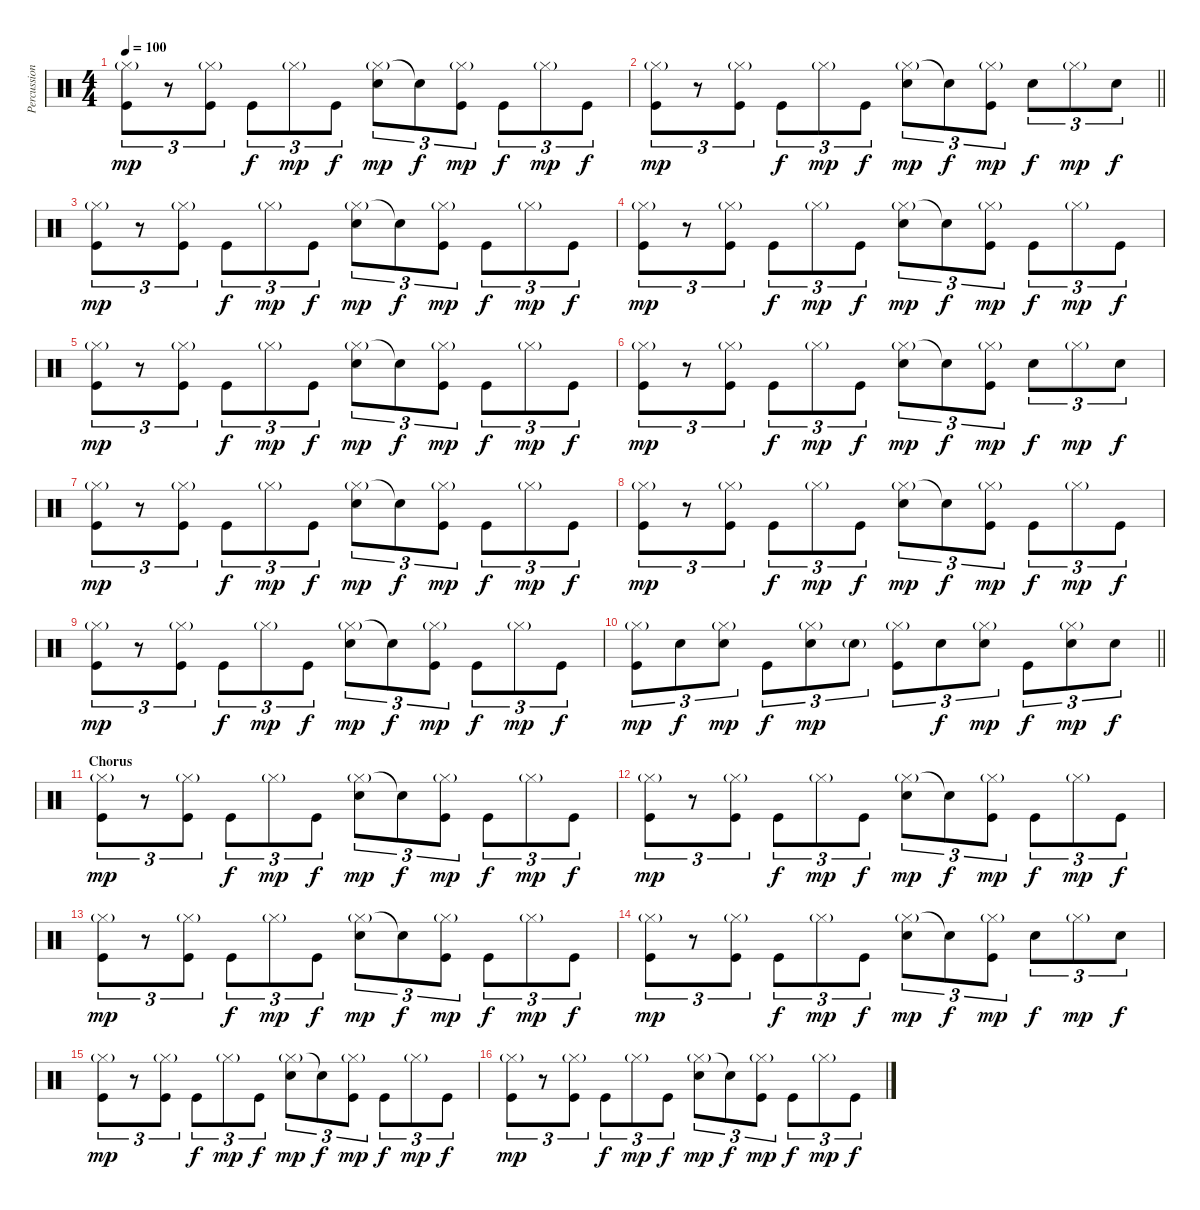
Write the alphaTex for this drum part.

\track ("Percussions" "Percussion") {instrument percussion}
\staff {score}
\articulation defaults
\ts (4 4)
\tempo 100
\clef neutral
\ks c
("Hi-Hat (closed)"{g} "Kick (hit)").8{tu (3 2) dy mp} r.8{tu (3 2)} ("Hi-Hat (closed)"{g} "Kick (hit)").8{tu (3 2)} "Kick (hit)".8{tu (3 2) dy f} "Hi-Hat (closed)"{g}.8{tu (3 2) dy mp} "Kick (hit)".8{tu (3 2) dy f} ("Hi-Hat (closed)"{g} "Electric Snare (hit)").8{tu (3 2) dy mp} "Snare (hit)"{t}.8{tu (3 2) dy f} ("Hi-Hat (closed)"{g} "Kick (hit)").8{tu (3 2) dy mp} "Kick (hit)".8{tu (3 2) dy f} "Hi-Hat (closed)"{g}.8{tu (3 2) dy mp} "Kick (hit)".8{tu (3 2) dy f} |
\barLineRight lightlight
("Hi-Hat (closed)"{g} "Kick (hit)").8{tu (3 2) dy mp} r.8{tu (3 2)} ("Hi-Hat (closed)"{g} "Kick (hit)").8{tu (3 2)} "Kick (hit)".8{tu (3 2) dy f} "Hi-Hat (closed)"{g}.8{tu (3 2) dy mp} "Kick (hit)".8{tu (3 2) dy f} ("Hi-Hat (closed)"{g} "Electric Snare (hit)").8{tu (3 2) dy mp} "Snare (hit)"{t}.8{tu (3 2) dy f} ("Hi-Hat (closed)"{g} "Kick (hit)").8{tu (3 2) dy mp} "Electric Snare (hit)".8{tu (3 2) dy f} "Hi-Hat (closed)"{g}.8{tu (3 2) dy mp} "Electric Snare (hit)".8{tu (3 2) dy f} |
("Hi-Hat (closed)"{g} "Kick (hit)").8{tu (3 2) dy mp} r.8{tu (3 2)} ("Hi-Hat (closed)"{g} "Kick (hit)").8{tu (3 2)} "Kick (hit)".8{tu (3 2) dy f} "Hi-Hat (closed)"{g}.8{tu (3 2) dy mp} "Kick (hit)".8{tu (3 2) dy f} ("Hi-Hat (closed)"{g} "Electric Snare (hit)").8{tu (3 2) dy mp} "Snare (hit)"{t}.8{tu (3 2) dy f} ("Hi-Hat (closed)"{g} "Kick (hit)").8{tu (3 2) dy mp} "Kick (hit)".8{tu (3 2) dy f} "Hi-Hat (closed)"{g}.8{tu (3 2) dy mp} "Kick (hit)".8{tu (3 2) dy f} |
("Hi-Hat (closed)"{g} "Kick (hit)").8{tu (3 2) dy mp} r.8{tu (3 2)} ("Hi-Hat (closed)"{g} "Kick (hit)").8{tu (3 2)} "Kick (hit)".8{tu (3 2) dy f} "Hi-Hat (closed)"{g}.8{tu (3 2) dy mp} "Kick (hit)".8{tu (3 2) dy f} ("Hi-Hat (closed)"{g} "Electric Snare (hit)").8{tu (3 2) dy mp} "Snare (hit)"{t}.8{tu (3 2) dy f} ("Hi-Hat (closed)"{g} "Kick (hit)").8{tu (3 2) dy mp} "Kick (hit)".8{tu (3 2) dy f} "Hi-Hat (closed)"{g}.8{tu (3 2) dy mp} "Kick (hit)".8{tu (3 2) dy f} |
("Hi-Hat (closed)"{g} "Kick (hit)").8{tu (3 2) dy mp} r.8{tu (3 2)} ("Hi-Hat (closed)"{g} "Kick (hit)").8{tu (3 2)} "Kick (hit)".8{tu (3 2) dy f} "Hi-Hat (closed)"{g}.8{tu (3 2) dy mp} "Kick (hit)".8{tu (3 2) dy f} ("Hi-Hat (closed)"{g} "Electric Snare (hit)").8{tu (3 2) dy mp} "Snare (hit)"{t}.8{tu (3 2) dy f} ("Hi-Hat (closed)"{g} "Kick (hit)").8{tu (3 2) dy mp} "Kick (hit)".8{tu (3 2) dy f} "Hi-Hat (closed)"{g}.8{tu (3 2) dy mp} "Kick (hit)".8{tu (3 2) dy f} |
("Hi-Hat (closed)"{g} "Kick (hit)").8{tu (3 2) dy mp} r.8{tu (3 2)} ("Hi-Hat (closed)"{g} "Kick (hit)").8{tu (3 2)} "Kick (hit)".8{tu (3 2) dy f} "Hi-Hat (closed)"{g}.8{tu (3 2) dy mp} "Kick (hit)".8{tu (3 2) dy f} ("Hi-Hat (closed)"{g} "Electric Snare (hit)").8{tu (3 2) dy mp} "Snare (hit)"{t}.8{tu (3 2) dy f} ("Hi-Hat (closed)"{g} "Kick (hit)").8{tu (3 2) dy mp} "Electric Snare (hit)".8{tu (3 2) dy f} "Hi-Hat (closed)"{g}.8{tu (3 2) dy mp} "Electric Snare (hit)".8{tu (3 2) dy f} |
("Hi-Hat (closed)"{g} "Kick (hit)").8{tu (3 2) dy mp} r.8{tu (3 2)} ("Hi-Hat (closed)"{g} "Kick (hit)").8{tu (3 2)} "Kick (hit)".8{tu (3 2) dy f} "Hi-Hat (closed)"{g}.8{tu (3 2) dy mp} "Kick (hit)".8{tu (3 2) dy f} ("Hi-Hat (closed)"{g} "Electric Snare (hit)").8{tu (3 2) dy mp} "Snare (hit)"{t}.8{tu (3 2) dy f} ("Hi-Hat (closed)"{g} "Kick (hit)").8{tu (3 2) dy mp} "Kick (hit)".8{tu (3 2) dy f} "Hi-Hat (closed)"{g}.8{tu (3 2) dy mp} "Kick (hit)".8{tu (3 2) dy f} |
("Hi-Hat (closed)"{g} "Kick (hit)").8{tu (3 2) dy mp} r.8{tu (3 2)} ("Hi-Hat (closed)"{g} "Kick (hit)").8{tu (3 2)} "Kick (hit)".8{tu (3 2) dy f} "Hi-Hat (closed)"{g}.8{tu (3 2) dy mp} "Kick (hit)".8{tu (3 2) dy f} ("Hi-Hat (closed)"{g} "Electric Snare (hit)").8{tu (3 2) dy mp} "Snare (hit)"{t}.8{tu (3 2) dy f} ("Hi-Hat (closed)"{g} "Kick (hit)").8{tu (3 2) dy mp} "Kick (hit)".8{tu (3 2) dy f} "Hi-Hat (closed)"{g}.8{tu (3 2) dy mp} "Kick (hit)".8{tu (3 2) dy f} |
("Hi-Hat (closed)"{g} "Kick (hit)").8{tu (3 2) dy mp} r.8{tu (3 2)} ("Hi-Hat (closed)"{g} "Kick (hit)").8{tu (3 2)} "Kick (hit)".8{tu (3 2) dy f} "Hi-Hat (closed)"{g}.8{tu (3 2) dy mp} "Kick (hit)".8{tu (3 2) dy f} ("Hi-Hat (closed)"{g} "Electric Snare (hit)").8{tu (3 2) dy mp} "Snare (hit)"{t}.8{tu (3 2) dy f} ("Hi-Hat (closed)"{g} "Kick (hit)").8{tu (3 2) dy mp} "Kick (hit)".8{tu (3 2) dy f} "Hi-Hat (closed)"{g}.8{tu (3 2) dy mp} "Kick (hit)".8{tu (3 2) dy f} |
\barLineRight lightlight
("Hi-Hat (closed)"{g} "Kick (hit)").8{tu (3 2) dy mp} "Electric Snare (hit)".8{tu (3 2) dy f} ("Hi-Hat (closed)"{g} "Electric Snare (hit)").8{tu (3 2) dy mp} "Kick (hit)".8{tu (3 2) dy f} ("Hi-Hat (closed)"{g} "Electric Snare (hit)").8{tu (3 2) dy mp} "Electric Snare (hit)"{g}.8{tu (3 2)} ("Hi-Hat (closed)"{g} "Kick (hit)").8{tu (3 2)} "Electric Snare (hit)".8{tu (3 2) dy f} ("Hi-Hat (closed)"{g} "Electric Snare (hit)").8{tu (3 2) dy mp} "Kick (hit)".8{tu (3 2) dy f} ("Hi-Hat (closed)"{g} "Electric Snare (hit)").8{tu (3 2) dy mp} "Electric Snare (hit)".8{tu (3 2) dy f} |
\section ("" "Chorus")
("Hi-Hat (closed)"{g} "Kick (hit)").8{tu (3 2) dy mp} r.8{tu (3 2)} ("Hi-Hat (closed)"{g} "Kick (hit)").8{tu (3 2)} "Kick (hit)".8{tu (3 2) dy f} "Hi-Hat (closed)"{g}.8{tu (3 2) dy mp} "Kick (hit)".8{tu (3 2) dy f} ("Hi-Hat (closed)"{g} "Electric Snare (hit)").8{tu (3 2) dy mp} "Snare (hit)"{t}.8{tu (3 2) dy f} ("Hi-Hat (closed)"{g} "Kick (hit)").8{tu (3 2) dy mp} "Kick (hit)".8{tu (3 2) dy f} "Hi-Hat (closed)"{g}.8{tu (3 2) dy mp} "Kick (hit)".8{tu (3 2) dy f} |
("Hi-Hat (closed)"{g} "Kick (hit)").8{tu (3 2) dy mp} r.8{tu (3 2)} ("Hi-Hat (closed)"{g} "Kick (hit)").8{tu (3 2)} "Kick (hit)".8{tu (3 2) dy f} "Hi-Hat (closed)"{g}.8{tu (3 2) dy mp} "Kick (hit)".8{tu (3 2) dy f} ("Hi-Hat (closed)"{g} "Electric Snare (hit)").8{tu (3 2) dy mp} "Snare (hit)"{t}.8{tu (3 2) dy f} ("Hi-Hat (closed)"{g} "Kick (hit)").8{tu (3 2) dy mp} "Kick (hit)".8{tu (3 2) dy f} "Hi-Hat (closed)"{g}.8{tu (3 2) dy mp} "Kick (hit)".8{tu (3 2) dy f} |
("Hi-Hat (closed)"{g} "Kick (hit)").8{tu (3 2) dy mp} r.8{tu (3 2)} ("Hi-Hat (closed)"{g} "Kick (hit)").8{tu (3 2)} "Kick (hit)".8{tu (3 2) dy f} "Hi-Hat (closed)"{g}.8{tu (3 2) dy mp} "Kick (hit)".8{tu (3 2) dy f} ("Hi-Hat (closed)"{g} "Electric Snare (hit)").8{tu (3 2) dy mp} "Snare (hit)"{t}.8{tu (3 2) dy f} ("Hi-Hat (closed)"{g} "Kick (hit)").8{tu (3 2) dy mp} "Kick (hit)".8{tu (3 2) dy f} "Hi-Hat (closed)"{g}.8{tu (3 2) dy mp} "Kick (hit)".8{tu (3 2) dy f} |
("Hi-Hat (closed)"{g} "Kick (hit)").8{tu (3 2) dy mp} r.8{tu (3 2)} ("Hi-Hat (closed)"{g} "Kick (hit)").8{tu (3 2)} "Kick (hit)".8{tu (3 2) dy f} "Hi-Hat (closed)"{g}.8{tu (3 2) dy mp} "Kick (hit)".8{tu (3 2) dy f} ("Hi-Hat (closed)"{g} "Electric Snare (hit)").8{tu (3 2) dy mp} "Snare (hit)"{t}.8{tu (3 2) dy f} ("Hi-Hat (closed)"{g} "Kick (hit)").8{tu (3 2) dy mp} "Electric Snare (hit)".8{tu (3 2) dy f} "Hi-Hat (closed)"{g}.8{tu (3 2) dy mp} "Electric Snare (hit)".8{tu (3 2) dy f} |
("Hi-Hat (closed)"{g} "Kick (hit)").8{tu (3 2) dy mp} r.8{tu (3 2)} ("Hi-Hat (closed)"{g} "Kick (hit)").8{tu (3 2)} "Kick (hit)".8{tu (3 2) dy f} "Hi-Hat (closed)"{g}.8{tu (3 2) dy mp} "Kick (hit)".8{tu (3 2) dy f} ("Hi-Hat (closed)"{g} "Electric Snare (hit)").8{tu (3 2) dy mp} "Snare (hit)"{t}.8{tu (3 2) dy f} ("Hi-Hat (closed)"{g} "Kick (hit)").8{tu (3 2) dy mp} "Kick (hit)".8{tu (3 2) dy f} "Hi-Hat (closed)"{g}.8{tu (3 2) dy mp} "Kick (hit)".8{tu (3 2) dy f} |
("Hi-Hat (closed)"{g} "Kick (hit)").8{tu (3 2) dy mp} r.8{tu (3 2)} ("Hi-Hat (closed)"{g} "Kick (hit)").8{tu (3 2)} "Kick (hit)".8{tu (3 2) dy f} "Hi-Hat (closed)"{g}.8{tu (3 2) dy mp} "Kick (hit)".8{tu (3 2) dy f} ("Hi-Hat (closed)"{g} "Electric Snare (hit)").8{tu (3 2) dy mp} "Snare (hit)"{t}.8{tu (3 2) dy f} ("Hi-Hat (closed)"{g} "Kick (hit)").8{tu (3 2) dy mp} "Kick (hit)".8{tu (3 2) dy f} "Hi-Hat (closed)"{g}.8{tu (3 2) dy mp} "Kick (hit)".8{tu (3 2) dy f}
